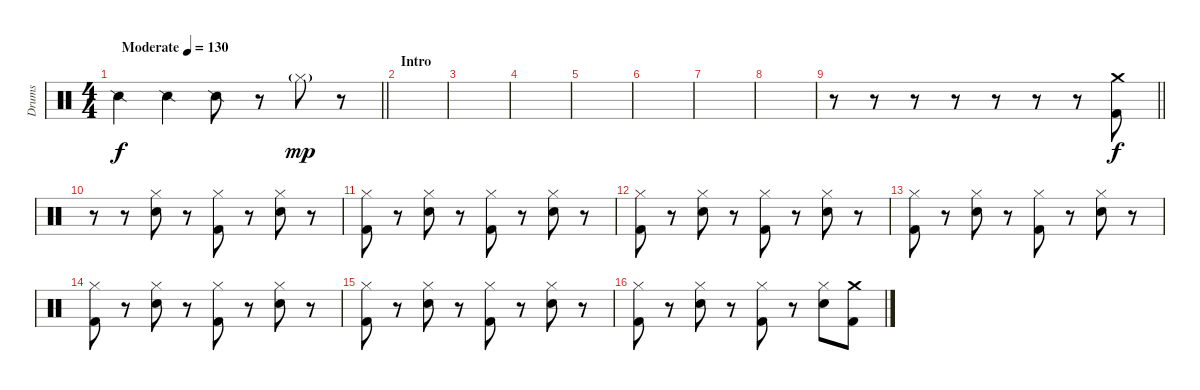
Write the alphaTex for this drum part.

\track ("Drums" "Drums") {instrument percussion}
\staff {score}
\articulation defaults
\ts (4 4)
\tempo (130 "Moderate")
\clef neutral
\barLineRight lightlight
\ks c "Snare (side stick) 2".4{dy f} "Snare (side stick) 2".4 "Snare (side stick) 2".8
r.8 "Hi-Hat (closed)"{g}.8{dy mp} r.8 |
\section ("" "Intro")
|
|
|
|
|
|
|
\barLineRight lightlight
r.8 r.8 r.8 r.8 r.8 r.8 r.8 ("Crash medium (hit)" "Kick (hit) 2").8{dy f} |
r.8 r.8 ("Hi-Hat (closed)" "Snare (hit) 2").8 r.8 ("Hi-Hat (closed)" "Kick (hit) 2").8 r.8 ("Hi-Hat (closed)" "Snare (hit) 2").8 r.8 |
("Hi-Hat (closed)" "Kick (hit) 2").8 r.8 ("Hi-Hat (closed)" "Snare (hit) 2").8 r.8 ("Hi-Hat (closed)" "Kick (hit) 2").8 r.8 ("Hi-Hat (closed)" "Snare (hit) 2").8 r.8 |
("Hi-Hat (closed)" "Kick (hit) 2").8 r.8 ("Hi-Hat (closed)" "Snare (hit) 2").8 r.8 ("Hi-Hat (closed)" "Kick (hit) 2").8 r.8 ("Hi-Hat (closed)" "Snare (hit) 2").8 r.8 |
("Hi-Hat (closed)" "Kick (hit) 2").8 r.8 ("Hi-Hat (closed)" "Snare (hit) 2").8 r.8 ("Hi-Hat (closed)" "Kick (hit) 2").8 r.8 ("Hi-Hat (closed)" "Snare (hit) 2").8 r.8 |
("Hi-Hat (closed)" "Kick (hit) 2").8 r.8 ("Hi-Hat (closed)" "Snare (hit) 2").8 r.8 ("Hi-Hat (closed)" "Kick (hit) 2").8 r.8 ("Hi-Hat (closed)" "Snare (hit) 2").8 r.8 |
("Hi-Hat (closed)" "Kick (hit) 2").8 r.8 ("Hi-Hat (closed)" "Snare (hit) 2").8 r.8 ("Hi-Hat (closed)" "Kick (hit) 2").8 r.8 ("Hi-Hat (closed)" "Snare (hit) 2").8 r.8 |
("Hi-Hat (closed)" "Kick (hit) 2").8 r.8 ("Hi-Hat (closed)" "Snare (hit) 2").8 r.8 ("Hi-Hat (closed)" "Kick (hit) 2").8 r.8 ("Hi-Hat (closed)" "Snare (hit) 2").8 ("Crash medium (hit)" "Kick (hit) 2").8
